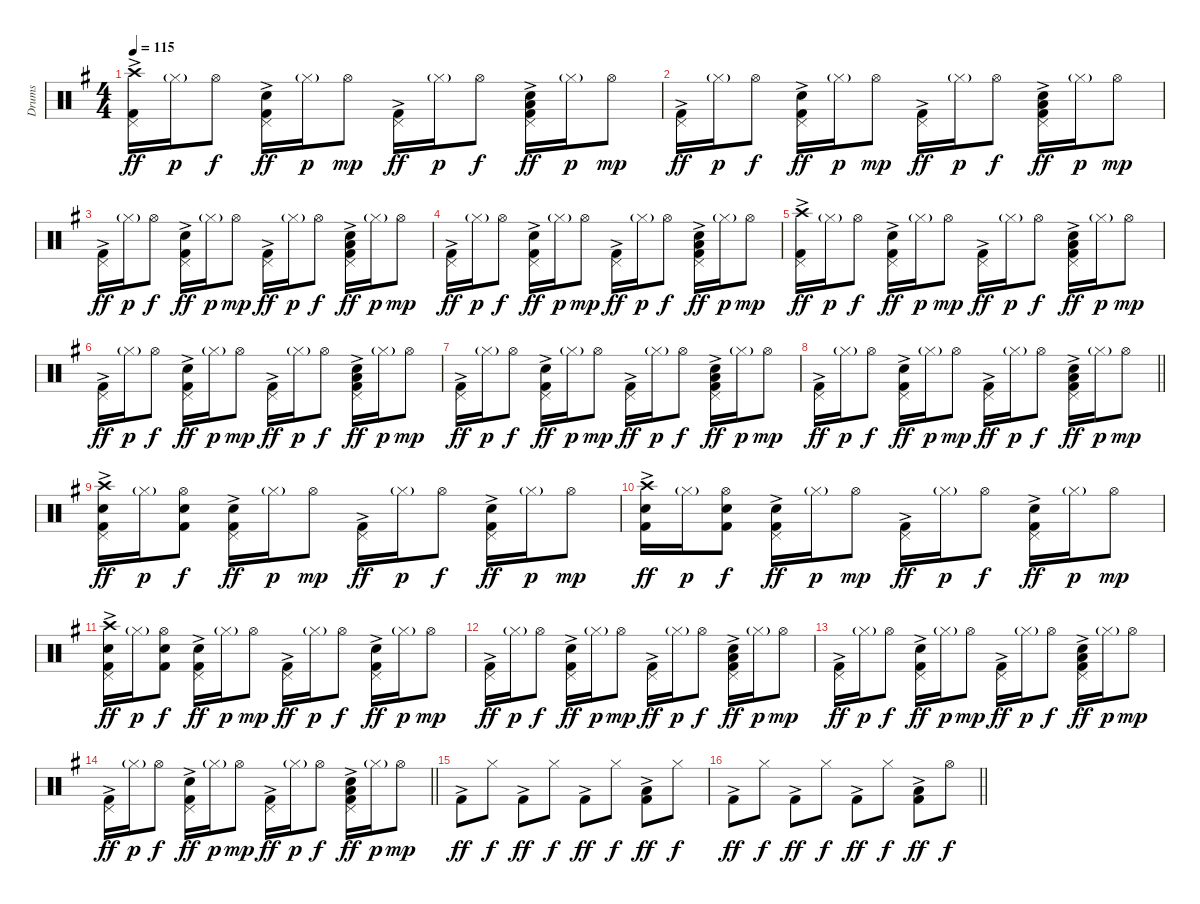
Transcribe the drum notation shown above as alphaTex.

\track ("Drums" "Drums") {instrument percussion}
\staff {score}
\articulation defaults
\ts (4 4)
\tempo 115
\clef neutral
\ks g
("Pedal Hi-Hat (hit)" "Crash high (hit)" "Kick (hit) 2"{ac}).16{dy ff} "Hi-Hat (closed)"{g}.16{dy p} "Hi-Hat (open)".8{dy f} ("Pedal Hi-Hat (hit)" "Snare (hit) 2"{ac} "Kick (hit) 2"{ac}).16{dy ff} "Hi-Hat (closed)"{g}.16{dy p} "Hi-Hat (open)".8{dy mp} ("Pedal Hi-Hat (hit)" "Kick (hit) 2"{ac}).16{dy ff} "Hi-Hat (closed)"{g}.16{dy p} "Hi-Hat (open)".8{dy f} ("Pedal Hi-Hat (hit)" "Snare (hit) 2"{ac} "Low Tom (hit)" "Kick (hit) 2"{ac}).16{dy ff} "Hi-Hat (closed)"{g}.16{dy p} "Hi-Hat (open)".8{dy mp} |
("Pedal Hi-Hat (hit)" "Kick (hit) 2"{ac}).16{dy ff} "Hi-Hat (closed)"{g}.16{dy p} "Hi-Hat (open)".8{dy f} ("Pedal Hi-Hat (hit)" "Snare (hit) 2"{ac} "Kick (hit) 2"{ac}).16{dy ff} "Hi-Hat (closed)"{g}.16{dy p} "Hi-Hat (open)".8{dy mp} ("Pedal Hi-Hat (hit)" "Kick (hit) 2"{ac}).16{dy ff} "Hi-Hat (closed)"{g}.16{dy p} "Hi-Hat (open)".8{dy f} ("Pedal Hi-Hat (hit)" "Snare (hit) 2"{ac} "Low Tom (hit)" "Kick (hit) 2"{ac}).16{dy ff} "Hi-Hat (closed)"{g}.16{dy p} "Hi-Hat (open)".8{dy mp} |
("Pedal Hi-Hat (hit)" "Kick (hit) 2"{ac}).16{dy ff} "Hi-Hat (closed)"{g}.16{dy p} "Hi-Hat (open)".8{dy f} ("Pedal Hi-Hat (hit)" "Snare (hit) 2"{ac} "Kick (hit) 2"{ac}).16{dy ff} "Hi-Hat (closed)"{g}.16{dy p} "Hi-Hat (open)".8{dy mp} ("Pedal Hi-Hat (hit)" "Kick (hit) 2"{ac}).16{dy ff} "Hi-Hat (closed)"{g}.16{dy p} "Hi-Hat (open)".8{dy f} ("Pedal Hi-Hat (hit)" "Snare (hit) 2"{ac} "Low Tom (hit)" "Kick (hit) 2"{ac}).16{dy ff} "Hi-Hat (closed)"{g}.16{dy p} "Hi-Hat (open)".8{dy mp} |
("Pedal Hi-Hat (hit)" "Kick (hit) 2"{ac}).16{dy ff} "Hi-Hat (closed)"{g}.16{dy p} "Hi-Hat (open)".8{dy f} ("Pedal Hi-Hat (hit)" "Snare (hit) 2"{ac} "Kick (hit) 2"{ac}).16{dy ff} "Hi-Hat (closed)"{g}.16{dy p} "Hi-Hat (open)".8{dy mp} ("Pedal Hi-Hat (hit)" "Kick (hit) 2"{ac}).16{dy ff} "Hi-Hat (closed)"{g}.16{dy p} "Hi-Hat (open)".8{dy f} ("Pedal Hi-Hat (hit)" "Snare (hit) 2"{ac} "Low Tom (hit)" "Kick (hit) 2"{ac}).16{dy ff} "Hi-Hat (closed)"{g}.16{dy p} "Hi-Hat (open)".8{dy mp} |
("Pedal Hi-Hat (hit)" "Crash high (hit)" "Kick (hit) 2"{ac}).16{dy ff} "Hi-Hat (closed)"{g}.16{dy p} "Hi-Hat (open)".8{dy f} ("Pedal Hi-Hat (hit)" "Snare (hit) 2"{ac} "Kick (hit) 2"{ac}).16{dy ff} "Hi-Hat (closed)"{g}.16{dy p} "Hi-Hat (open)".8{dy mp} ("Pedal Hi-Hat (hit)" "Kick (hit) 2"{ac}).16{dy ff} "Hi-Hat (closed)"{g}.16{dy p} "Hi-Hat (open)".8{dy f} ("Pedal Hi-Hat (hit)" "Snare (hit) 2"{ac} "Low Tom (hit)" "Kick (hit) 2"{ac}).16{dy ff} "Hi-Hat (closed)"{g}.16{dy p} "Hi-Hat (open)".8{dy mp} |
("Pedal Hi-Hat (hit)" "Kick (hit) 2"{ac}).16{dy ff} "Hi-Hat (closed)"{g}.16{dy p} "Hi-Hat (open)".8{dy f} ("Pedal Hi-Hat (hit)" "Snare (hit) 2"{ac} "Kick (hit) 2"{ac}).16{dy ff} "Hi-Hat (closed)"{g}.16{dy p} "Hi-Hat (open)".8{dy mp} ("Pedal Hi-Hat (hit)" "Kick (hit) 2"{ac}).16{dy ff} "Hi-Hat (closed)"{g}.16{dy p} "Hi-Hat (open)".8{dy f} ("Pedal Hi-Hat (hit)" "Snare (hit) 2"{ac} "Low Tom (hit)" "Kick (hit) 2"{ac}).16{dy ff} "Hi-Hat (closed)"{g}.16{dy p} "Hi-Hat (open)".8{dy mp} |
("Pedal Hi-Hat (hit)" "Kick (hit) 2"{ac}).16{dy ff} "Hi-Hat (closed)"{g}.16{dy p} "Hi-Hat (open)".8{dy f} ("Pedal Hi-Hat (hit)" "Snare (hit) 2"{ac} "Kick (hit) 2"{ac}).16{dy ff} "Hi-Hat (closed)"{g}.16{dy p} "Hi-Hat (open)".8{dy mp} ("Pedal Hi-Hat (hit)" "Kick (hit) 2"{ac}).16{dy ff} "Hi-Hat (closed)"{g}.16{dy p} "Hi-Hat (open)".8{dy f} ("Pedal Hi-Hat (hit)" "Snare (hit) 2"{ac} "Low Tom (hit)" "Kick (hit) 2"{ac}).16{dy ff} "Hi-Hat (closed)"{g}.16{dy p} "Hi-Hat (open)".8{dy mp} |
\barLineRight lightlight
("Pedal Hi-Hat (hit)" "Kick (hit) 2"{ac}).16{dy ff} "Hi-Hat (closed)"{g}.16{dy p} "Hi-Hat (open)".8{dy f} ("Pedal Hi-Hat (hit)" "Snare (hit) 2"{ac} "Kick (hit) 2"{ac}).16{dy ff} "Hi-Hat (closed)"{g}.16{dy p} "Hi-Hat (open)".8{dy mp} ("Pedal Hi-Hat (hit)" "Kick (hit) 2"{ac}).16{dy ff} "Hi-Hat (closed)"{g}.16{dy p} "Hi-Hat (open)".8{dy f} ("Pedal Hi-Hat (hit)" "Snare (hit) 2"{ac} "Low Tom (hit)" "Kick (hit) 2"{ac}).16{dy ff} "Hi-Hat (closed)"{g}.16{dy p} "Hi-Hat (open)".8{dy mp} |
("Pedal Hi-Hat (hit)" "Crash high (hit)" "Snare (hit) 2" "Kick (hit) 2"{ac}).16{dy ff} "Hi-Hat (closed)"{g}.16{dy p} ("Hi-Hat (open)" "Snare (hit) 2" "Kick (hit) 2").8{dy f} ("Pedal Hi-Hat (hit)" "Snare (hit) 2"{ac} "Kick (hit) 2"{ac}).16{dy ff} "Hi-Hat (closed)"{g}.16{dy p} "Hi-Hat (open)".8{dy mp} ("Pedal Hi-Hat (hit)" "Kick (hit) 2"{ac}).16{dy ff} "Hi-Hat (closed)"{g}.16{dy p} "Hi-Hat (open)".8{dy f} ("Pedal Hi-Hat (hit)" "Snare (hit) 2"{ac} "Kick (hit) 2"{ac}).16{dy ff} "Hi-Hat (closed)"{g}.16{dy p} "Hi-Hat (open)".8{dy mp} |
("Crash high (hit)" "Snare (hit) 2" "Kick (hit) 2"{ac}).16{dy ff} "Hi-Hat (closed)"{g}.16{dy p} ("Hi-Hat (open)" "Snare (hit) 2" "Kick (hit) 2").8{dy f} ("Pedal Hi-Hat (hit)" "Snare (hit) 2"{ac} "Kick (hit) 2"{ac}).16{dy ff} "Hi-Hat (closed)"{g}.16{dy p} "Hi-Hat (open)".8{dy mp} ("Pedal Hi-Hat (hit)" "Kick (hit) 2"{ac}).16{dy ff} "Hi-Hat (closed)"{g}.16{dy p} "Hi-Hat (open)".8{dy f} ("Pedal Hi-Hat (hit)" "Snare (hit) 2"{ac} "Kick (hit) 2"{ac}).16{dy ff} "Hi-Hat (closed)"{g}.16{dy p} "Hi-Hat (open)".8{dy mp} |
("Pedal Hi-Hat (hit)" "Crash high (hit)" "Snare (hit) 2" "Kick (hit) 2"{ac}).16{dy ff} "Hi-Hat (closed)"{g}.16{dy p} ("Hi-Hat (open)" "Snare (hit) 2" "Kick (hit) 2").8{dy f} ("Pedal Hi-Hat (hit)" "Snare (hit) 2"{ac} "Kick (hit) 2"{ac}).16{dy ff} "Hi-Hat (closed)"{g}.16{dy p} "Hi-Hat (open)".8{dy mp} ("Pedal Hi-Hat (hit)" "Kick (hit) 2"{ac}).16{dy ff} "Hi-Hat (closed)"{g}.16{dy p} "Hi-Hat (open)".8{dy f} ("Pedal Hi-Hat (hit)" "Snare (hit) 2"{ac} "Kick (hit) 2"{ac}).16{dy ff} "Hi-Hat (closed)"{g}.16{dy p} "Hi-Hat (open)".8{dy mp} |
("Pedal Hi-Hat (hit)" "Kick (hit) 2"{ac}).16{dy ff} "Hi-Hat (closed)"{g}.16{dy p} "Hi-Hat (open)".8{dy f} ("Pedal Hi-Hat (hit)" "Snare (hit) 2"{ac} "Kick (hit) 2"{ac}).16{dy ff} "Hi-Hat (closed)"{g}.16{dy p} "Hi-Hat (open)".8{dy mp} ("Pedal Hi-Hat (hit)" "Kick (hit) 2"{ac}).16{dy ff} "Hi-Hat (closed)"{g}.16{dy p} "Hi-Hat (open)".8{dy f} ("Pedal Hi-Hat (hit)" "Snare (hit) 2"{ac} "Low Tom (hit)" "Kick (hit) 2"{ac}).16{dy ff} "Hi-Hat (closed)"{g}.16{dy p} "Hi-Hat (open)".8{dy mp} |
("Pedal Hi-Hat (hit)" "Kick (hit) 2"{ac}).16{dy ff} "Hi-Hat (closed)"{g}.16{dy p} "Hi-Hat (open)".8{dy f} ("Pedal Hi-Hat (hit)" "Snare (hit) 2"{ac} "Kick (hit) 2"{ac}).16{dy ff} "Hi-Hat (closed)"{g}.16{dy p} "Hi-Hat (open)".8{dy mp} ("Pedal Hi-Hat (hit)" "Kick (hit) 2"{ac}).16{dy ff} "Hi-Hat (closed)"{g}.16{dy p} "Hi-Hat (open)".8{dy f} ("Pedal Hi-Hat (hit)" "Snare (hit) 2"{ac} "Low Tom (hit)" "Kick (hit) 2"{ac}).16{dy ff} "Hi-Hat (closed)"{g}.16{dy p} "Hi-Hat (open)".8{dy mp} |
\barLineRight lightlight
("Pedal Hi-Hat (hit)" "Kick (hit) 2"{ac}).16{dy ff} "Hi-Hat (closed)"{g}.16{dy p} "Hi-Hat (open)".8{dy f} ("Pedal Hi-Hat (hit)" "Snare (hit) 2"{ac} "Kick (hit) 2"{ac}).16{dy ff} "Hi-Hat (closed)"{g}.16{dy p} "Hi-Hat (open)".8{dy mp} ("Pedal Hi-Hat (hit)" "Kick (hit) 2"{ac}).16{dy ff} "Hi-Hat (closed)"{g}.16{dy p} "Hi-Hat (open)".8{dy f} ("Pedal Hi-Hat (hit)" "Snare (hit) 2"{ac} "Low Tom (hit)" "Kick (hit) 2"{ac}).16{dy ff} "Hi-Hat (closed)"{g}.16{dy p} "Hi-Hat (open)".8{dy mp} |
"Kick (hit) 2"{ac}.8{dy ff} "Hi-Hat (closed)".8{dy f} "Kick (hit) 2"{ac}.8{dy ff} "Hi-Hat (closed)".8{dy f} "Kick (hit) 2"{ac}.8{dy ff} "Hi-Hat (closed)".8{dy f} ("Low Tom (hit)" "Kick (hit) 2"{ac}).8{dy ff} "Hi-Hat (closed)".8{dy f} |
\barLineRight lightlight "Kick (hit) 2"{ac}.8{dy ff} "Hi-Hat (closed)".8{dy f} "Kick (hit) 2"{ac}.8{dy ff} "Hi-Hat (closed)".8{dy f} "Kick (hit) 2"{ac}.8{dy ff} "Hi-Hat (closed)".8{dy f}
("Low Tom (hit)" "Kick (hit) 2"{ac}).8{dy ff} "Hi-Hat (open)".8{dy f}
